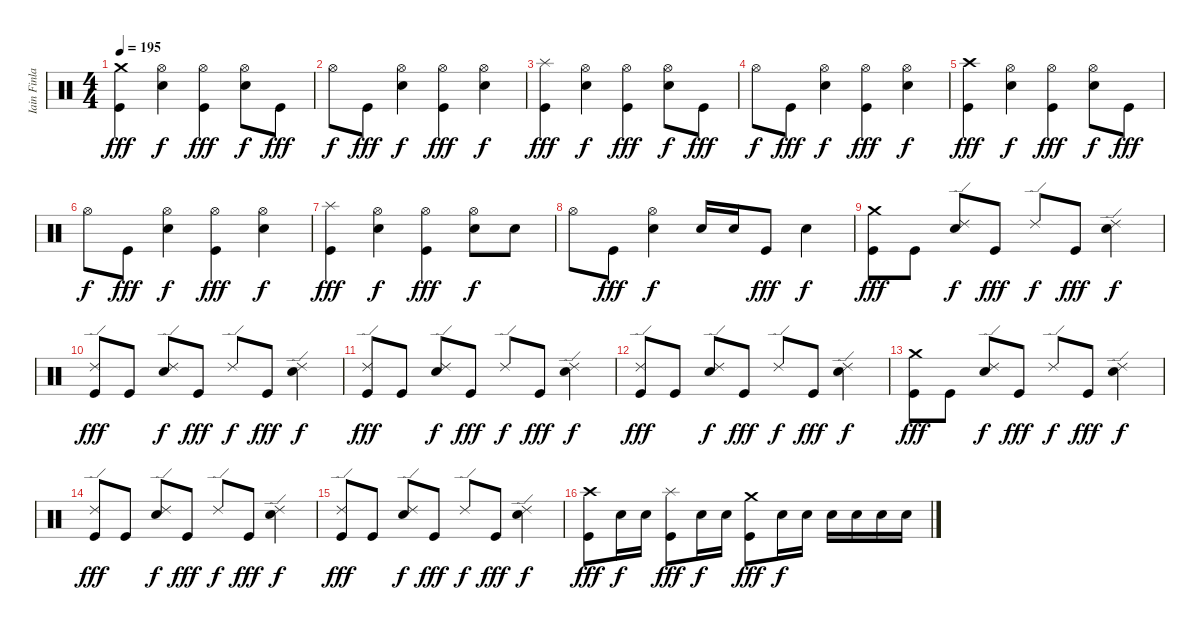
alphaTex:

\track ("Iain Finlay (Batería)" "Iain Finla") {instrument percussion}
\staff {score}
\articulation defaults
\ts (4 4)
\tempo 195
\clef neutral
\ks c
("Crash medium (hit)" "Kick (hit)").4{dy fff} ("Hi-Hat (open)" "Electric Snare (hit)").4{dy f} ("Hi-Hat (open)" "Kick (hit)").4{dy fff} ("Hi-Hat (open)" "Electric Snare (hit)").8{dy f} "Kick (hit)".8{dy fff} |
"Hi-Hat (open)".8{dy f} "Kick (hit)".8{dy fff} ("Hi-Hat (open)" "Electric Snare (hit)").4{dy f} ("Hi-Hat (open)" "Kick (hit)").4{dy fff} ("Hi-Hat (open)" "Electric Snare (hit)").4{dy f} |
("Splash (hit)" "Kick (hit)").4{dy fff} ("Hi-Hat (open)" "Electric Snare (hit)").4{dy f} ("Hi-Hat (open)" "Kick (hit)").4{dy fff} ("Hi-Hat (open)" "Electric Snare (hit)").8{dy f} "Kick (hit)".8{dy fff} |
"Hi-Hat (open)".8{dy f} "Kick (hit)".8{dy fff} ("Hi-Hat (open)" "Electric Snare (hit)").4{dy f} ("Hi-Hat (open)" "Kick (hit)").4{dy fff} ("Hi-Hat (open)" "Electric Snare (hit)").4{dy f} |
("Crash high (hit)" "Kick (hit)").4{dy fff} ("Hi-Hat (open)" "Electric Snare (hit)").4{dy f} ("Hi-Hat (open)" "Kick (hit)").4{dy fff} ("Hi-Hat (open)" "Electric Snare (hit)").8{dy f} "Kick (hit)".8{dy fff} |
"Hi-Hat (open)".8{dy f} "Kick (hit)".8{dy fff} ("Hi-Hat (open)" "Electric Snare (hit)").4{dy f} ("Hi-Hat (open)" "Kick (hit)").4{dy fff} ("Hi-Hat (open)" "Electric Snare (hit)").4{dy f} |
("Splash (hit)" "Kick (hit)").4{dy fff} ("Hi-Hat (open)" "Electric Snare (hit)").4{dy f} ("Hi-Hat (open)" "Kick (hit)").4{dy fff} ("Hi-Hat (open)" "Electric Snare (hit)").8{dy f} "Electric Snare (hit)".8 |
"Hi-Hat (open)".8 "Kick (hit)".8{dy fff} ("Hi-Hat (open)" "Electric Snare (hit)").4{dy f} "Electric Snare (hit)".16 "Electric Snare (hit)".16 "Kick (hit)".8{dy fff} "Electric Snare (hit)".4{dy f} |
("Crash medium (hit)" "Kick (hit)").8{dy fff} "Kick (hit)".8 ("Ride (edge) 2" "Electric Snare (hit)").8{dy f} "Kick (hit)".8{dy fff} "Ride (edge) 2".8{dy f} "Kick (hit)".8{dy fff} ("Ride (edge) 2" "Electric Snare (hit)").4{dy f} |
("Ride (edge) 2" "Kick (hit)").8{dy fff} "Kick (hit)".8 ("Ride (edge) 2" "Electric Snare (hit)").8{dy f} "Kick (hit)".8{dy fff} "Ride (edge) 2".8{dy f} "Kick (hit)".8{dy fff} ("Ride (edge) 2" "Electric Snare (hit)").4{dy f} |
("Ride (edge) 2" "Kick (hit)").8{dy fff} "Kick (hit)".8 ("Ride (edge) 2" "Electric Snare (hit)").8{dy f} "Kick (hit)".8{dy fff} "Ride (edge) 2".8{dy f} "Kick (hit)".8{dy fff} ("Ride (edge) 2" "Electric Snare (hit)").4{dy f} |
("Ride (edge) 2" "Kick (hit)").8{dy fff} "Kick (hit)".8 ("Ride (edge) 2" "Electric Snare (hit)").8{dy f} "Kick (hit)".8{dy fff} "Ride (edge) 2".8{dy f} "Kick (hit)".8{dy fff} ("Ride (edge) 2" "Electric Snare (hit)").4{dy f} |
("Crash medium (hit)" "Kick (hit)").8{dy fff} "Kick (hit)".8 ("Ride (edge) 2" "Electric Snare (hit)").8{dy f} "Kick (hit)".8{dy fff} "Ride (edge) 2".8{dy f} "Kick (hit)".8{dy fff} ("Ride (edge) 2" "Electric Snare (hit)").4{dy f} |
("Ride (edge) 2" "Kick (hit)").8{dy fff} "Kick (hit)".8 ("Ride (edge) 2" "Electric Snare (hit)").8{dy f} "Kick (hit)".8{dy fff} "Ride (edge) 2".8{dy f} "Kick (hit)".8{dy fff} ("Ride (edge) 2" "Electric Snare (hit)").4{dy f} |
("Ride (edge) 2" "Kick (hit)").8{dy fff} "Kick (hit)".8 ("Ride (edge) 2" "Electric Snare (hit)").8{dy f} "Kick (hit)".8{dy fff} "Ride (edge) 2".8{dy f} "Kick (hit)".8{dy fff} ("Ride (edge) 2" "Electric Snare (hit)").4{dy f} |
("Crash high (hit)" "Kick (hit)").8{dy fff} "Electric Snare (hit)".16{dy f} "Electric Snare (hit)".16 ("Splash (hit)" "Kick (hit)").8{dy fff} "Electric Snare (hit)".16{dy f} "Electric Snare (hit)".16 ("Crash medium (hit)" "Kick (hit)").8{dy fff} "Electric Snare (hit)".16{dy f} "Electric Snare (hit)".16 "Electric Snare (hit)".16 "Electric Snare (hit)".16 "Electric Snare (hit)".16 "Electric Snare (hit)".16
